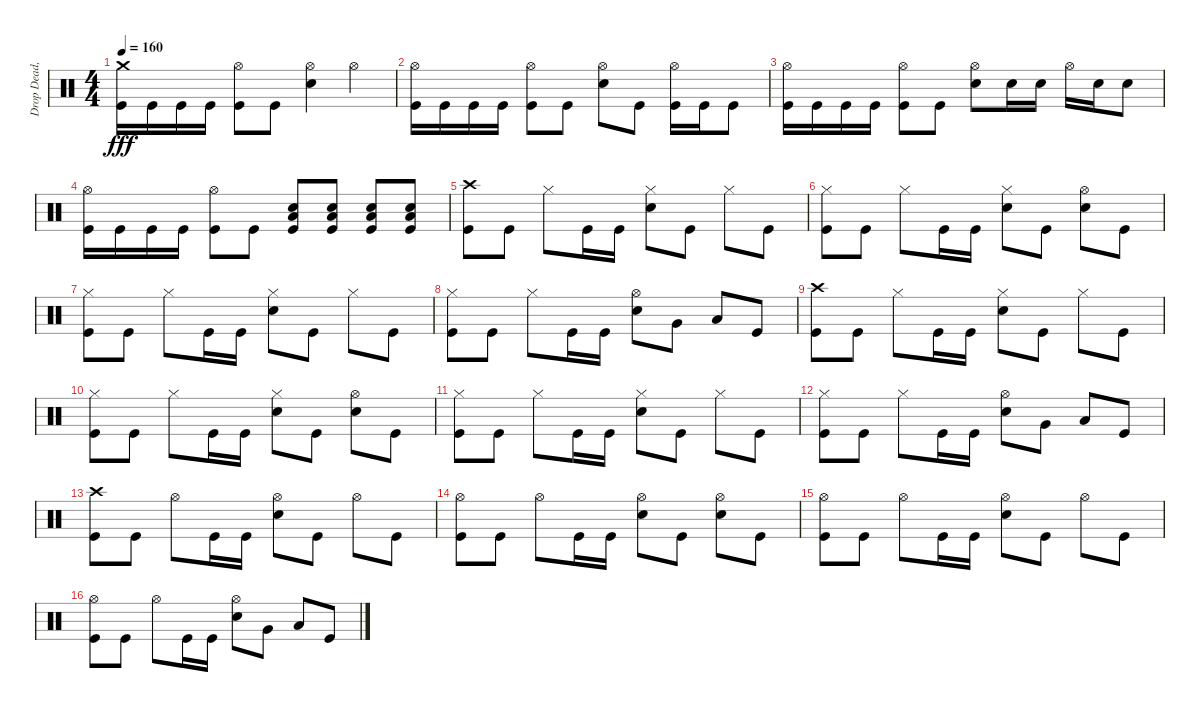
\track ("Drop Dead, Johnny" "Drop Dead,") {instrument percussion}
\staff {score}
\articulation defaults
\ts (4 4)
\tempo 160
\clef neutral
\ks c
("Crash medium (hit)" "Kick (hit)").16{dy fff} "Kick (hit)".16 "Kick (hit)".16 "Kick (hit)".16 ("Hi-Hat (open)" "Kick (hit)").8 "Kick (hit)".8 ("Hi-Hat (open)" "Electric Snare (hit)").4 "Hi-Hat (open)".4 |
("Hi-Hat (open)" "Kick (hit)").16 "Kick (hit)".16 "Kick (hit)".16 "Kick (hit)".16 ("Hi-Hat (open)" "Kick (hit)").8 "Kick (hit)".8 ("Hi-Hat (open)" "Electric Snare (hit)").8 "Kick (hit)".8 ("Hi-Hat (open)" "Kick (hit)").16 "Kick (hit)".16 "Kick (hit)".8 |
("Hi-Hat (open)" "Kick (hit)").16 "Kick (hit)".16 "Kick (hit)".16 "Kick (hit)".16 ("Hi-Hat (open)" "Kick (hit)").8 "Kick (hit)".8 ("Hi-Hat (open)" "Electric Snare (hit)").8 "Electric Snare (hit)".16 "Electric Snare (hit)".16 "Hi-Hat (open)".16 "Electric Snare (hit)".16 "Electric Snare (hit)".8 |
("Hi-Hat (open)" "Kick (hit)").16 "Kick (hit)".16 "Kick (hit)".16 "Kick (hit)".16 ("Hi-Hat (open)" "Kick (hit)").8 "Kick (hit)".8 ("Low Floor Tom (hit)" "Electric Snare (hit)" "Kick (hit)").8 ("Low Floor Tom (hit)" "Electric Snare (hit)" "Kick (hit)").8 ("Low Floor Tom (hit)" "Electric Snare (hit)" "Kick (hit)").8 ("Low Floor Tom (hit)" "Electric Snare (hit)" "Kick (hit)").8 |
("Crash high (hit)" "Kick (hit)").8 "Kick (hit)".8 "Hi-Hat (closed)".8 "Kick (hit)".16 "Kick (hit)".16 ("Hi-Hat (closed)" "Electric Snare (hit)").8 "Kick (hit)".8 "Hi-Hat (closed)".8 "Kick (hit)".8 |
("Hi-Hat (closed)" "Kick (hit)").8 "Kick (hit)".8 "Hi-Hat (closed)".8 "Kick (hit)".16 "Kick (hit)".16 ("Hi-Hat (closed)" "Electric Snare (hit)").8 "Kick (hit)".8 ("Hi-Hat (open)" "Electric Snare (hit)").8 "Kick (hit)".8 |
("Hi-Hat (closed)" "Kick (hit)").8 "Kick (hit)".8 "Hi-Hat (closed)".8 "Kick (hit)".16 "Kick (hit)".16 ("Hi-Hat (closed)" "Electric Snare (hit)").8 "Kick (hit)".8 "Hi-Hat (closed)".8 "Kick (hit)".8 |
("Hi-Hat (closed)" "Kick (hit)").8 "Kick (hit)".8 "Hi-Hat (closed)".8 "Kick (hit)".16 "Kick (hit)".16 ("Hi-Hat (open)" "Electric Snare (hit)").8 "Very Low Tom (hit)".8 "Low Floor Tom (hit)".8 "Kick (hit)".8 |
("Crash high (hit)" "Kick (hit)").8 "Kick (hit)".8 "Hi-Hat (closed)".8 "Kick (hit)".16 "Kick (hit)".16 ("Hi-Hat (closed)" "Electric Snare (hit)").8 "Kick (hit)".8 "Hi-Hat (closed)".8 "Kick (hit)".8 |
("Hi-Hat (closed)" "Kick (hit)").8 "Kick (hit)".8 "Hi-Hat (closed)".8 "Kick (hit)".16 "Kick (hit)".16 ("Hi-Hat (closed)" "Electric Snare (hit)").8 "Kick (hit)".8 ("Hi-Hat (open)" "Electric Snare (hit)").8 "Kick (hit)".8 |
("Hi-Hat (closed)" "Kick (hit)").8 "Kick (hit)".8 "Hi-Hat (closed)".8 "Kick (hit)".16 "Kick (hit)".16 ("Hi-Hat (closed)" "Electric Snare (hit)").8 "Kick (hit)".8 "Hi-Hat (closed)".8 "Kick (hit)".8 |
("Hi-Hat (closed)" "Kick (hit)").8 "Kick (hit)".8 "Hi-Hat (closed)".8 "Kick (hit)".16 "Kick (hit)".16 ("Hi-Hat (open)" "Electric Snare (hit)").8 "Very Low Tom (hit)".8 "Low Floor Tom (hit)".8 "Kick (hit)".8 |
("Crash high (hit)" "Kick (hit)").8 "Kick (hit)".8 "Hi-Hat (open)".8 "Kick (hit)".16 "Kick (hit)".16 ("Hi-Hat (open)" "Electric Snare (hit)").8 "Kick (hit)".8 "Hi-Hat (open)".8 "Kick (hit)".8 |
("Hi-Hat (open)" "Kick (hit)").8 "Kick (hit)".8 "Hi-Hat (open)".8 "Kick (hit)".16 "Kick (hit)".16 ("Hi-Hat (open)" "Electric Snare (hit)").8 "Kick (hit)".8 ("Hi-Hat (open)" "Electric Snare (hit)").8 "Kick (hit)".8 |
("Hi-Hat (open)" "Kick (hit)").8 "Kick (hit)".8 "Hi-Hat (open)".8 "Kick (hit)".16 "Kick (hit)".16 ("Hi-Hat (open)" "Electric Snare (hit)").8 "Kick (hit)".8 "Hi-Hat (open)".8 "Kick (hit)".8 |
("Hi-Hat (open)" "Kick (hit)").8 "Kick (hit)".8 "Hi-Hat (open)".8 "Kick (hit)".16 "Kick (hit)".16 ("Hi-Hat (open)" "Electric Snare (hit)").8 "Very Low Tom (hit)".8 "Low Floor Tom (hit)".8 "Kick (hit)".8
